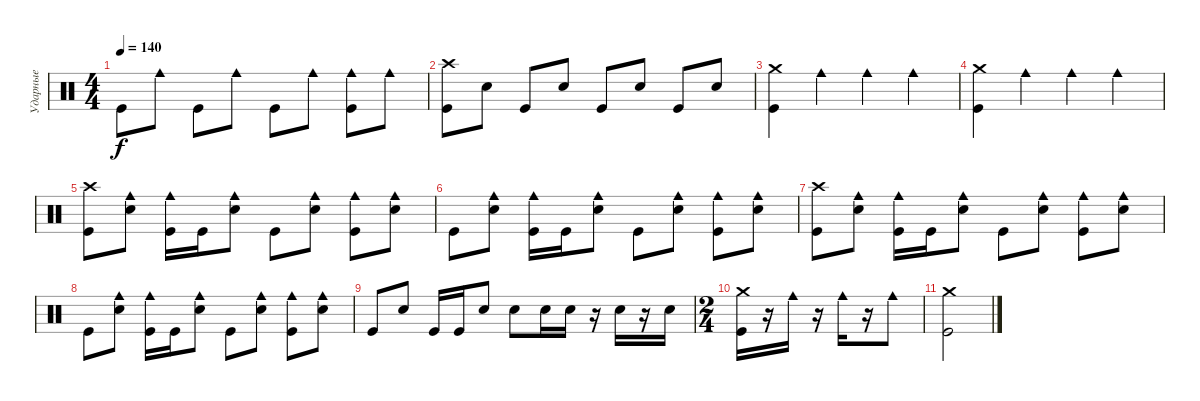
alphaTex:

\track ("Ударные" "Ударные") {instrument percussion}
\staff {score}
\articulation defaults
\ts (4 4)
\tempo 140
\clef neutral
\ks c "Kick (hit)".8{dy f} "Cowbell medium (hit)".8 "Kick (hit)".8 "Cowbell medium (hit)".8 "Kick (hit)".8 "Cowbell medium (hit)".8
("Cowbell medium (hit)" "Kick (hit)").8 "Cowbell medium (hit)".8 |
("Crash high (hit)" "Kick (hit)").8 "Electric Snare (hit)".8 "Kick (hit)".8 "Electric Snare (hit)".8 "Kick (hit)".8 "Electric Snare (hit)".8 "Kick (hit)".8 "Electric Snare (hit)".8 |
("Crash medium (hit)" "Kick (hit)").4 "Cowbell medium (hit)".4 "Cowbell medium (hit)".4 "Cowbell medium (hit)".4 |
("Crash medium (hit)" "Kick (hit)").4 "Cowbell medium (hit)".4 "Cowbell medium (hit)".4 "Cowbell medium (hit)".4 |
("Crash high (hit)" "Kick (hit)").8 ("Cowbell medium (hit)" "Electric Snare (hit)").8 ("Cowbell medium (hit)" "Kick (hit)").16 "Kick (hit)".16 ("Cowbell medium (hit)" "Electric Snare (hit)").8 "Kick (hit)".8 ("Cowbell medium (hit)" "Electric Snare (hit)").8 ("Cowbell medium (hit)" "Kick (hit)").8 ("Cowbell medium (hit)" "Electric Snare (hit)").8 |
"Kick (hit)".8 ("Cowbell medium (hit)" "Electric Snare (hit)").8 ("Cowbell medium (hit)" "Kick (hit)").16 "Kick (hit)".16 ("Cowbell medium (hit)" "Electric Snare (hit)").8 "Kick (hit)".8 ("Cowbell medium (hit)" "Electric Snare (hit)").8 ("Cowbell medium (hit)" "Kick (hit)").8 ("Cowbell medium (hit)" "Electric Snare (hit)").8 |
("Crash high (hit)" "Kick (hit)").8 ("Cowbell medium (hit)" "Electric Snare (hit)").8 ("Cowbell medium (hit)" "Kick (hit)").16 "Kick (hit)".16 ("Cowbell medium (hit)" "Electric Snare (hit)").8 "Kick (hit)".8 ("Cowbell medium (hit)" "Electric Snare (hit)").8 ("Cowbell medium (hit)" "Kick (hit)").8 ("Cowbell medium (hit)" "Electric Snare (hit)").8 |
"Kick (hit)".8 ("Cowbell medium (hit)" "Electric Snare (hit)").8 ("Cowbell medium (hit)" "Kick (hit)").16 "Kick (hit)".16 ("Cowbell medium (hit)" "Electric Snare (hit)").8 "Kick (hit)".8 ("Cowbell medium (hit)" "Electric Snare (hit)").8 ("Cowbell medium (hit)" "Kick (hit)").8 ("Cowbell medium (hit)" "Electric Snare (hit)").8 |
"Kick (hit)".8 "Electric Snare (hit)".8 "Kick (hit)".16 "Kick (hit)".16 "Electric Snare (hit)".8 "Electric Snare (hit)".8 "Electric Snare (hit)".16 "Electric Snare (hit)".16 r.16 "Electric Snare (hit)".16 r.16 "Electric Snare (hit)".16 |
\ts (2 4)
("Crash medium (hit)" "Kick (hit)").16 r.16 "Cowbell medium (hit)".16 r.16 "Cowbell medium (hit)".16 r.16 "Cowbell medium (hit)".8 |
("Crash medium (hit)" "Kick (hit)").2
